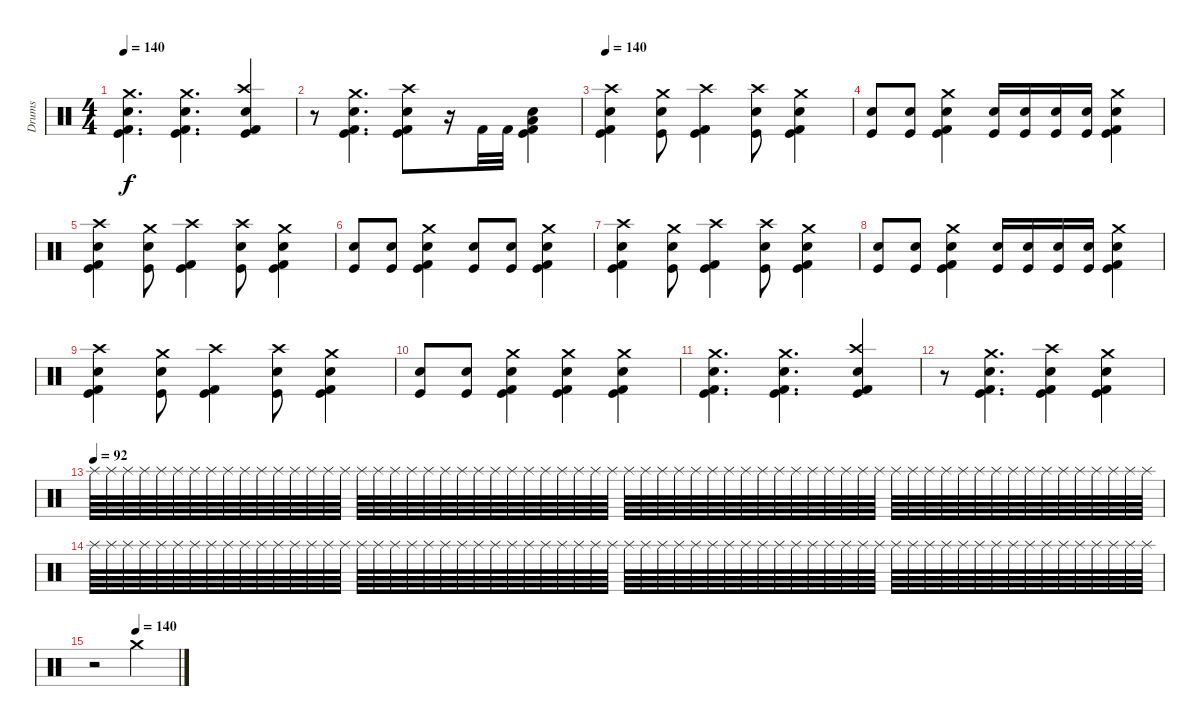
\track ("Drums" "Drums") {instrument percussion}
\staff {score}
\articulation defaults
\ts (4 4)
\tempo 140
\clef neutral
\ks c
("Crash medium (hit)" "Snare (hit) 2" "Kick (hit) 2" "Kick (hit)").4{d dy f} ("Crash medium (hit)" "Snare (hit) 2" "Kick (hit) 2" "Kick (hit)").4{d} ("Crash high (hit)" "Electric Snare (hit)" "Kick (hit) 2" "Kick (hit)").4 |
r.8 ("Crash medium (hit)" "Snare (hit) 2" "Kick (hit) 2" "Kick (hit)").4{d} ("Crash high (hit)" "Snare (hit) 2" "Kick (hit) 2" "Kick (hit)").8 r.16 "Kick (hit) 2".32 "Kick (hit) 2".32 ("Low Floor Tom (hit)" "Snare (hit) 2" "Kick (hit) 2" "Kick (hit)").4 |
\tempo 140
("Crash high (hit)" "Snare (hit) 2" "Kick (hit) 2" "Kick (hit)").4 ("Crash medium (hit)" "Snare (hit) 2" "Kick (hit)").8 ("Crash high (hit)" "Kick (hit) 2" "Kick (hit)").4 ("Crash high (hit)" "Snare (hit) 2" "Kick (hit)").8 ("Crash medium (hit)" "Electric Snare (hit)" "Kick (hit) 2" "Kick (hit)").4 |
("Snare (hit) 2" "Kick (hit)").8 ("Snare (hit) 2" "Kick (hit)").8 ("Crash medium (hit)" "Electric Snare (hit)" "Kick (hit) 2" "Kick (hit)").4 ("Snare (hit) 2" "Kick (hit)").16 ("Snare (hit) 2" "Kick (hit)").16 ("Snare (hit) 2" "Kick (hit)").16 ("Snare (hit) 2" "Kick (hit)").16 ("Crash medium (hit)" "Electric Snare (hit)" "Kick (hit) 2" "Kick (hit)").4 |
("Crash high (hit)" "Snare (hit) 2" "Kick (hit) 2" "Kick (hit)").4 ("Crash medium (hit)" "Snare (hit) 2" "Kick (hit)").8 ("Crash high (hit)" "Kick (hit) 2" "Kick (hit)").4 ("Crash high (hit)" "Snare (hit) 2" "Kick (hit)").8 ("Crash medium (hit)" "Electric Snare (hit)" "Kick (hit) 2" "Kick (hit)").4 |
("Snare (hit) 2" "Kick (hit)").8 ("Snare (hit) 2" "Kick (hit)").8 ("Crash medium (hit)" "Electric Snare (hit)" "Kick (hit) 2" "Kick (hit)").4 ("Snare (hit) 2" "Kick (hit)").8 ("Snare (hit) 2" "Kick (hit)").8 ("Crash medium (hit)" "Electric Snare (hit)" "Kick (hit) 2" "Kick (hit)").4 |
("Crash high (hit)" "Snare (hit) 2" "Kick (hit) 2" "Kick (hit)").4 ("Crash medium (hit)" "Snare (hit) 2" "Kick (hit)").8 ("Crash high (hit)" "Kick (hit) 2" "Kick (hit)").4 ("Crash high (hit)" "Snare (hit) 2" "Kick (hit)").8 ("Crash medium (hit)" "Electric Snare (hit)" "Kick (hit) 2" "Kick (hit)").4 |
("Snare (hit) 2" "Kick (hit)").8 ("Snare (hit) 2" "Kick (hit)").8 ("Crash medium (hit)" "Electric Snare (hit)" "Kick (hit) 2" "Kick (hit)").4 ("Snare (hit) 2" "Kick (hit)").16 ("Snare (hit) 2" "Kick (hit)").16 ("Snare (hit) 2" "Kick (hit)").16 ("Snare (hit) 2" "Kick (hit)").16 ("Crash medium (hit)" "Electric Snare (hit)" "Kick (hit) 2" "Kick (hit)").4 |
("Crash high (hit)" "Snare (hit) 2" "Kick (hit) 2" "Kick (hit)").4 ("Crash medium (hit)" "Snare (hit) 2" "Kick (hit)").8 ("Crash high (hit)" "Kick (hit) 2" "Kick (hit)").4 ("Crash high (hit)" "Snare (hit) 2" "Kick (hit)").8 ("Crash medium (hit)" "Electric Snare (hit)" "Kick (hit) 2" "Kick (hit)").4 |
("Snare (hit) 2" "Kick (hit)").8 ("Snare (hit) 2" "Kick (hit)").8 ("Crash medium (hit)" "Electric Snare (hit)" "Kick (hit) 2" "Kick (hit)").4 ("Crash medium (hit)" "Electric Snare (hit)" "Kick (hit) 2" "Kick (hit)").4 ("Crash medium (hit)" "Electric Snare (hit)" "Kick (hit) 2" "Kick (hit)").4 |
("Crash medium (hit)" "Snare (hit) 2" "Kick (hit) 2" "Kick (hit)").4{d} ("Crash medium (hit)" "Snare (hit) 2" "Kick (hit) 2" "Kick (hit)").4{d} ("Crash high (hit)" "Electric Snare (hit)" "Kick (hit) 2" "Kick (hit)").4 |
r.8 ("Crash medium (hit)" "Snare (hit) 2" "Kick (hit) 2" "Kick (hit)").4{d} ("Crash high (hit)" "Snare (hit) 2" "Kick (hit) 2" "Kick (hit)").4 ("Crash medium (hit)" "Snare (hit) 2" "Kick (hit) 2" "Kick (hit)").4 |
\tempo (92)
"Splash (hit)".64{volume 5} "Splash (hit)".64 "Splash (hit)".64 "Splash (hit)".64 "Splash (hit)".64 "Splash (hit)".64 "Splash (hit)".64 "Splash (hit)".64 "Splash (hit)".64 "Splash (hit)".64 "Splash (hit)".64 "Splash (hit)".64 "Splash (hit)".64 "Splash (hit)".64 "Splash (hit)".64 "Splash (hit)".64 "Splash (hit)".64 "Splash (hit)".64 "Splash (hit)".64 "Splash (hit)".64 "Splash (hit)".64 "Splash (hit)".64 "Splash (hit)".64 "Splash (hit)".64 "Splash (hit)".64 "Splash (hit)".64 "Splash (hit)".64 "Splash (hit)".64 "Splash (hit)".64 "Splash (hit)".64 "Splash (hit)".64 "Splash (hit)".64 "Splash (hit)".64 "Splash (hit)".64 "Splash (hit)".64 "Splash (hit)".64 "Splash (hit)".64 "Splash (hit)".64 "Splash (hit)".64 "Splash (hit)".64 "Splash (hit)".64 "Splash (hit)".64 "Splash (hit)".64 "Splash (hit)".64 "Splash (hit)".64 "Splash (hit)".64 "Splash (hit)".64 "Splash (hit)".64 "Splash (hit)".64 "Splash (hit)".64 "Splash (hit)".64 "Splash (hit)".64 "Splash (hit)".64 "Splash (hit)".64 "Splash (hit)".64 "Splash (hit)".64 "Splash (hit)".64 "Splash (hit)".64 "Splash (hit)".64 "Splash (hit)".64 "Splash (hit)".64 "Splash (hit)".64 "Splash (hit)".64 "Splash (hit)".64 |
"Splash (hit)".64 "Splash (hit)".64 "Splash (hit)".64 "Splash (hit)".64 "Splash (hit)".64 "Splash (hit)".64 "Splash (hit)".64 "Splash (hit)".64 "Splash (hit)".64 "Splash (hit)".64 "Splash (hit)".64 "Splash (hit)".64 "Splash (hit)".64 "Splash (hit)".64 "Splash (hit)".64 "Splash (hit)".64 "Splash (hit)".64 "Splash (hit)".64 "Splash (hit)".64 "Splash (hit)".64 "Splash (hit)".64 "Splash (hit)".64 "Splash (hit)".64 "Splash (hit)".64 "Splash (hit)".64 "Splash (hit)".64 "Splash (hit)".64 "Splash (hit)".64 "Splash (hit)".64 "Splash (hit)".64 "Splash (hit)".64 "Splash (hit)".64 "Splash (hit)".64 "Splash (hit)".64 "Splash (hit)".64 "Splash (hit)".64 "Splash (hit)".64 "Splash (hit)".64 "Splash (hit)".64 "Splash (hit)".64 "Splash (hit)".64 "Splash (hit)".64 "Splash (hit)".64 "Splash (hit)".64 "Splash (hit)".64 "Splash (hit)".64 "Splash (hit)".64 "Splash (hit)".64 "Splash (hit)".64{volume 0} "Splash (hit)".64 "Splash (hit)".64 "Splash (hit)".64 "Splash (hit)".64 "Splash (hit)".64 "Splash (hit)".64 "Splash (hit)".64 "Splash (hit)".64 "Splash (hit)".64 "Splash (hit)".64 "Splash (hit)".64 "Splash (hit)".64 "Splash (hit)".64 "Splash (hit)".64 "Splash (hit)".64 |
\tempo (140 0.5)
r.2 "Crash medium (hit)".2{volume 10}
